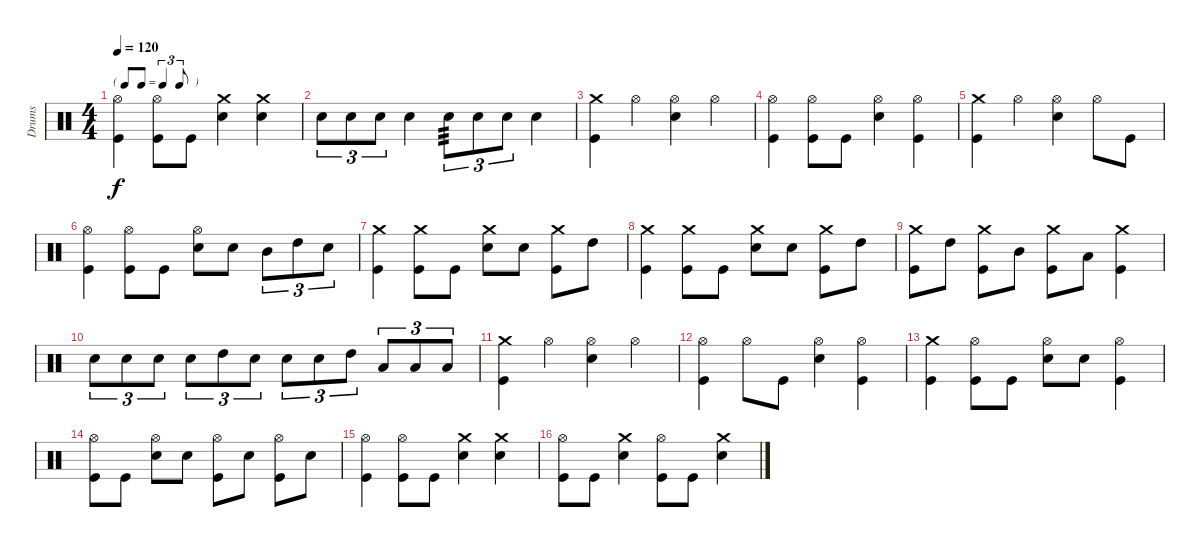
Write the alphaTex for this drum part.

\track ("Drums" "Drums") {instrument percussion}
\staff {score}
\articulation defaults
\ts (4 4)
\tf triplet8th
\tempo 120
\clef neutral
\ks c
("Kick (hit)" "Hi-Hat (open)").4{dy f} ("Kick (hit)" "Hi-Hat (open)").8 "Kick (hit)".8 ("Electric Snare (hit)" "Crash medium (hit)").4 ("Electric Snare (hit)" "Crash medium (hit)").4 |
"Electric Snare (hit)".8{tu (3 2)} "Electric Snare (hit)".8{tu (3 2)} "Electric Snare (hit)".8{tu (3 2)} "Electric Snare (hit)".4 "Electric Snare (hit)".8{tu (3 2) tp 3} "Electric Snare (hit)".8{tu (3 2)} "Electric Snare (hit)".8{tu (3 2)} "Electric Snare (hit)".4 |
("Kick (hit)" "Crash medium (hit)").4 "Hi-Hat (open)".4 ("Electric Snare (hit)" "Hi-Hat (open)").4 "Hi-Hat (open)".4 |
("Kick (hit)" "Hi-Hat (open)").4 ("Kick (hit)" "Hi-Hat (open)").8 "Kick (hit)".8 ("Electric Snare (hit)" "Hi-Hat (open)").4 ("Kick (hit)" "Hi-Hat (open)").4 |
("Kick (hit)" "Crash medium (hit)").4 "Hi-Hat (open)".4 ("Electric Snare (hit)" "Hi-Hat (open)").4 "Hi-Hat (open)".8 "Kick (hit)".8 |
("Kick (hit)" "Hi-Hat (open)").4 ("Kick (hit)" "Hi-Hat (open)").8 "Kick (hit)".8 ("Electric Snare (hit)" "Hi-Hat (open)").8 "Electric Snare (hit)".8 "Mid Tom (hit)".8{tu (3 2)} "High Tom (hit)".8{tu (3 2)} "Electric Snare (hit)".8{tu (3 2)} |
("Kick (hit)" "Crash medium (hit)").4 ("Kick (hit)" "Crash medium (hit)").8 "Kick (hit)".8 ("Electric Snare (hit)" "Crash medium (hit)").8 "Electric Snare (hit)".8 ("Kick (hit)" "Crash medium (hit)").8 "High Tom (hit)".8 |
("Kick (hit)" "Crash medium (hit)").4 ("Kick (hit)" "Crash medium (hit)").8 "Kick (hit)".8 ("Electric Snare (hit)" "Crash medium (hit)").8 "Electric Snare (hit)".8 ("Kick (hit)" "Crash medium (hit)").8 "High Tom (hit)".8 |
("Kick (hit)" "Crash medium (hit)").8 "High Tom (hit)".8 ("Kick (hit)" "Crash medium (hit)").8 "Mid Tom (hit)".8 ("Kick (hit)" "Crash medium (hit)").8 "Low Tom (hit)".8 ("Kick (hit)" "Crash medium (hit)").4 |
"Electric Snare (hit)".8{tu (3 2)} "Electric Snare (hit)".8{tu (3 2)} "Electric Snare (hit)".8{tu (3 2)} "Electric Snare (hit)".8{tu (3 2)} "High Tom (hit)".8{tu (3 2)} "Electric Snare (hit)".8{tu (3 2)} "Electric Snare (hit)".8{tu (3 2)} "Electric Snare (hit)".8{tu (3 2)} "High Tom (hit)".8{tu (3 2)} "Low Tom (hit)".8{tu (3 2)} "Low Tom (hit)".8{tu (3 2)} "Low Tom (hit)".8{tu (3 2)} |
("Kick (hit)" "Crash medium (hit)").4 "Hi-Hat (open)".4 ("Electric Snare (hit)" "Hi-Hat (open)").4 "Hi-Hat (open)".4 |
("Kick (hit)" "Hi-Hat (open)").4 "Hi-Hat (open)".8 "Kick (hit)".8 ("Electric Snare (hit)" "Hi-Hat (open)").4 ("Kick (hit)" "Hi-Hat (open)").4 |
("Kick (hit)" "Crash medium (hit)").4 ("Kick (hit)" "Hi-Hat (open)").8 "Kick (hit)".8 ("Electric Snare (hit)" "Hi-Hat (open)").8 "Electric Snare (hit)".8 ("Kick (hit)" "Hi-Hat (open)").4 |
("Kick (hit)" "Hi-Hat (open)").8 "Kick (hit)".8 ("Electric Snare (hit)" "Hi-Hat (open)").8 "Electric Snare (hit)".8 ("Kick (hit)" "Hi-Hat (open)").8 "Electric Snare (hit)".8 ("Kick (hit)" "Hi-Hat (open)").8 "Electric Snare (hit)".8 |
("Kick (hit)" "Hi-Hat (open)").4 ("Kick (hit)" "Hi-Hat (open)").8 "Kick (hit)".8 ("Electric Snare (hit)" "Crash medium (hit)").4 ("Electric Snare (hit)" "Crash medium (hit)").4 |
("Kick (hit)" "Hi-Hat (open)").8 "Kick (hit)".8 ("Electric Snare (hit)" "Crash medium (hit)").4 ("Kick (hit)" "Hi-Hat (open)").8 "Kick (hit)".8 ("Electric Snare (hit)" "Crash medium (hit)").4
